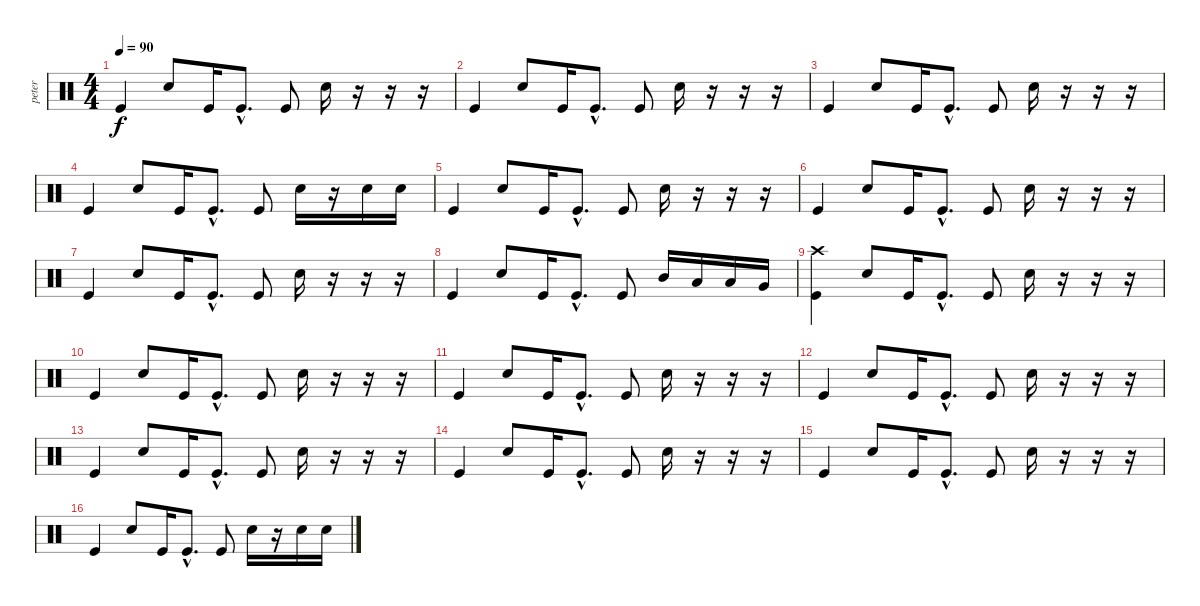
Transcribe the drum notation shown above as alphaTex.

\track ("peter" "peter") {instrument percussion}
\staff {score}
\articulation defaults
\ts (4 4)
\tempo 90
\clef neutral
\ks c "Kick (hit)".4{dy f} "Electric Snare (hit)".8 "Kick (hit)".16 "Kick (hit)"{hac}.8{d} "Kick (hit)".8 "Electric Snare (hit)".16
r.16 r.16 r.16 |
"Kick (hit)".4 "Electric Snare (hit)".8 "Kick (hit)".16 "Kick (hit)"{hac}.8{d} "Kick (hit)".8 "Electric Snare (hit)".16 r.16 r.16 r.16 |
"Kick (hit)".4 "Electric Snare (hit)".8 "Kick (hit)".16 "Kick (hit)"{hac}.8{d} "Kick (hit)".8 "Electric Snare (hit)".16 r.16 r.16 r.16 |
"Kick (hit)".4 "Electric Snare (hit)".8 "Kick (hit)".16 "Kick (hit)"{hac}.8{d} "Kick (hit)".8 "Electric Snare (hit)".16 r.16 "Electric Snare (hit)".16 "Electric Snare (hit)".16 |
"Kick (hit)".4 "Electric Snare (hit)".8 "Kick (hit)".16 "Kick (hit)"{hac}.8{d} "Kick (hit)".8 "Electric Snare (hit)".16 r.16 r.16 r.16 |
"Kick (hit)".4 "Electric Snare (hit)".8 "Kick (hit)".16 "Kick (hit)"{hac}.8{d} "Kick (hit)".8 "Electric Snare (hit)".16 r.16 r.16 r.16 |
"Kick (hit)".4 "Electric Snare (hit)".8 "Kick (hit)".16 "Kick (hit)"{hac}.8{d} "Kick (hit)".8 "Electric Snare (hit)".16 r.16 r.16 r.16 |
"Kick (hit)".4 "Electric Snare (hit)".8 "Kick (hit)".16 "Kick (hit)"{hac}.8{d} "Kick (hit)".8 "Mid Tom (hit)".16 "Low Tom (hit)".16 "Low Tom (hit)".16 "Very Low Tom (hit)".16 |
("Crash high (hit)" "Kick (hit)").4 "Electric Snare (hit)".8 "Kick (hit)".16 "Kick (hit)"{hac}.8{d} "Kick (hit)".8 "Electric Snare (hit)".16 r.16 r.16 r.16 |
"Kick (hit)".4 "Electric Snare (hit)".8 "Kick (hit)".16 "Kick (hit)"{hac}.8{d} "Kick (hit)".8 "Electric Snare (hit)".16 r.16 r.16 r.16 |
"Kick (hit)".4 "Electric Snare (hit)".8 "Kick (hit)".16 "Kick (hit)"{hac}.8{d} "Kick (hit)".8 "Electric Snare (hit)".16 r.16 r.16 r.16 |
"Kick (hit)".4 "Electric Snare (hit)".8 "Kick (hit)".16 "Kick (hit)"{hac}.8{d} "Kick (hit)".8 "Electric Snare (hit)".16 r.16 r.16 r.16 |
"Kick (hit)".4 "Electric Snare (hit)".8 "Kick (hit)".16 "Kick (hit)"{hac}.8{d} "Kick (hit)".8 "Electric Snare (hit)".16 r.16 r.16 r.16 |
"Kick (hit)".4 "Electric Snare (hit)".8 "Kick (hit)".16 "Kick (hit)"{hac}.8{d} "Kick (hit)".8 "Electric Snare (hit)".16 r.16 r.16 r.16 |
"Kick (hit)".4 "Electric Snare (hit)".8 "Kick (hit)".16 "Kick (hit)"{hac}.8{d} "Kick (hit)".8 "Electric Snare (hit)".16 r.16 r.16 r.16 |
"Kick (hit)".4 "Electric Snare (hit)".8 "Kick (hit)".16 "Kick (hit)"{hac}.8{d} "Kick (hit)".8 "Electric Snare (hit)".16 r.16 "Electric Snare (hit)".16 "Electric Snare (hit)".16
